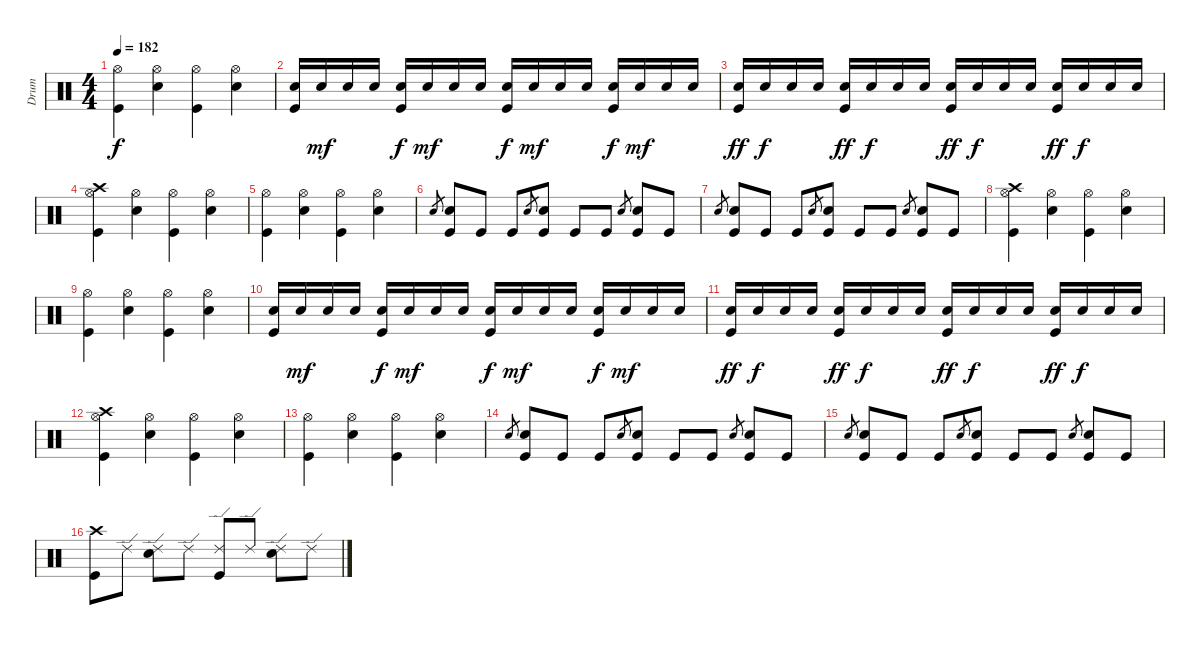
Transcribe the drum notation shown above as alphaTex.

\track ("Drum" "Drum") {instrument percussion}
\staff {score}
\articulation defaults
\ts (4 4)
\tempo 182
\clef neutral
\ks c
("Hi-Hat (open)" "Kick (hit)").4{dy f} ("Snare (hit) 2" "Hi-Hat (open)").4 ("Hi-Hat (open)" "Kick (hit)").4 ("Snare (hit) 2" "Hi-Hat (open)").4 |
("Snare (hit) 2" "Kick (hit)").16 "Snare (hit) 2".16{dy mf} "Snare (hit) 2".16 "Snare (hit) 2".16 ("Snare (hit) 2" "Kick (hit)").16{dy f} "Snare (hit) 2".16{dy mf} "Snare (hit) 2".16 "Snare (hit) 2".16 ("Snare (hit) 2" "Kick (hit)").16{dy f} "Snare (hit) 2".16{dy mf} "Snare (hit) 2".16 "Snare (hit) 2".16 ("Snare (hit) 2" "Kick (hit)").16{dy f} "Snare (hit) 2".16{dy mf} "Snare (hit) 2".16 "Snare (hit) 2".16 |
("Snare (hit) 2" "Kick (hit)").16{dy ff} "Snare (hit) 2".16{dy f} "Snare (hit) 2".16 "Snare (hit) 2".16 ("Snare (hit) 2" "Kick (hit)").16{dy ff} "Snare (hit) 2".16{dy f} "Snare (hit) 2".16 "Snare (hit) 2".16 ("Snare (hit) 2" "Kick (hit)").16{dy ff} "Snare (hit) 2".16{dy f} "Snare (hit) 2".16 "Snare (hit) 2".16 ("Snare (hit) 2" "Kick (hit)").16{dy ff} "Snare (hit) 2".16{dy f} "Snare (hit) 2".16 "Snare (hit) 2".16 |
("Crash high (hit)" "Hi-Hat (open)" "Kick (hit)").4 ("Snare (hit) 2" "Hi-Hat (open)").4 ("Hi-Hat (open)" "Kick (hit)").4 ("Snare (hit) 2" "Hi-Hat (open)").4 |
("Hi-Hat (open)" "Kick (hit)").4 ("Snare (hit) 2" "Hi-Hat (open)").4 ("Hi-Hat (open)" "Kick (hit)").4 ("Snare (hit) 2" "Hi-Hat (open)").4 |
"Snare (hit) 2".8{gr} ("Snare (hit) 2" "Kick (hit)").8 "Kick (hit)".8 "Kick (hit)".8 "Snare (hit) 2".8{gr} ("Snare (hit) 2" "Kick (hit)").8 "Kick (hit)".8 "Kick (hit)".8 "Snare (hit) 2".8{gr} ("Snare (hit) 2" "Kick (hit)").8 "Kick (hit)".8 |
"Snare (hit) 2".8{gr} ("Snare (hit) 2" "Kick (hit)").8 "Kick (hit)".8 "Kick (hit)".8 "Snare (hit) 2".8{gr} ("Snare (hit) 2" "Kick (hit)").8 "Kick (hit)".8 "Kick (hit)".8 "Snare (hit) 2".8{gr} ("Snare (hit) 2" "Kick (hit)").8 "Kick (hit)".8 |
("Crash high (hit)" "Hi-Hat (open)" "Kick (hit)").4 ("Snare (hit) 2" "Hi-Hat (open)").4 ("Hi-Hat (open)" "Kick (hit)").4 ("Snare (hit) 2" "Hi-Hat (open)").4 |
("Hi-Hat (open)" "Kick (hit)").4 ("Snare (hit) 2" "Hi-Hat (open)").4 ("Hi-Hat (open)" "Kick (hit)").4 ("Snare (hit) 2" "Hi-Hat (open)").4 |
("Snare (hit) 2" "Kick (hit)").16 "Snare (hit) 2".16{dy mf} "Snare (hit) 2".16 "Snare (hit) 2".16 ("Snare (hit) 2" "Kick (hit)").16{dy f} "Snare (hit) 2".16{dy mf} "Snare (hit) 2".16 "Snare (hit) 2".16 ("Snare (hit) 2" "Kick (hit)").16{dy f} "Snare (hit) 2".16{dy mf} "Snare (hit) 2".16 "Snare (hit) 2".16 ("Snare (hit) 2" "Kick (hit)").16{dy f} "Snare (hit) 2".16{dy mf} "Snare (hit) 2".16 "Snare (hit) 2".16 |
("Snare (hit) 2" "Kick (hit)").16{dy ff} "Snare (hit) 2".16{dy f} "Snare (hit) 2".16 "Snare (hit) 2".16 ("Snare (hit) 2" "Kick (hit)").16{dy ff} "Snare (hit) 2".16{dy f} "Snare (hit) 2".16 "Snare (hit) 2".16 ("Snare (hit) 2" "Kick (hit)").16{dy ff} "Snare (hit) 2".16{dy f} "Snare (hit) 2".16 "Snare (hit) 2".16 ("Snare (hit) 2" "Kick (hit)").16{dy ff} "Snare (hit) 2".16{dy f} "Snare (hit) 2".16 "Snare (hit) 2".16 |
("Crash high (hit)" "Hi-Hat (open)" "Kick (hit)").4 ("Snare (hit) 2" "Hi-Hat (open)").4 ("Hi-Hat (open)" "Kick (hit)").4 ("Snare (hit) 2" "Hi-Hat (open)").4 |
("Hi-Hat (open)" "Kick (hit)").4 ("Snare (hit) 2" "Hi-Hat (open)").4 ("Hi-Hat (open)" "Kick (hit)").4 ("Snare (hit) 2" "Hi-Hat (open)").4 |
"Snare (hit) 2".8{gr} ("Snare (hit) 2" "Kick (hit)").8 "Kick (hit)".8 "Kick (hit)".8 "Snare (hit) 2".8{gr} ("Snare (hit) 2" "Kick (hit)").8 "Kick (hit)".8 "Kick (hit)".8 "Snare (hit) 2".8{gr} ("Snare (hit) 2" "Kick (hit)").8 "Kick (hit)".8 |
"Snare (hit) 2".8{gr} ("Snare (hit) 2" "Kick (hit)").8 "Kick (hit)".8 "Kick (hit)".8 "Snare (hit) 2".8{gr} ("Snare (hit) 2" "Kick (hit)").8 "Kick (hit)".8 "Kick (hit)".8 "Snare (hit) 2".8{gr} ("Snare (hit) 2" "Kick (hit)").8 "Kick (hit)".8 |
("Crash high (hit)" "Kick (hit)").8 "Ride (edge) 2".8 ("Ride (edge) 2" "Snare (hit) 2").8 "Ride (edge) 2".8 ("Ride (edge) 2" "Kick (hit)").8 "Ride (edge) 2".8 ("Ride (edge) 2" "Snare (hit) 2").8 "Ride (edge) 2".8
